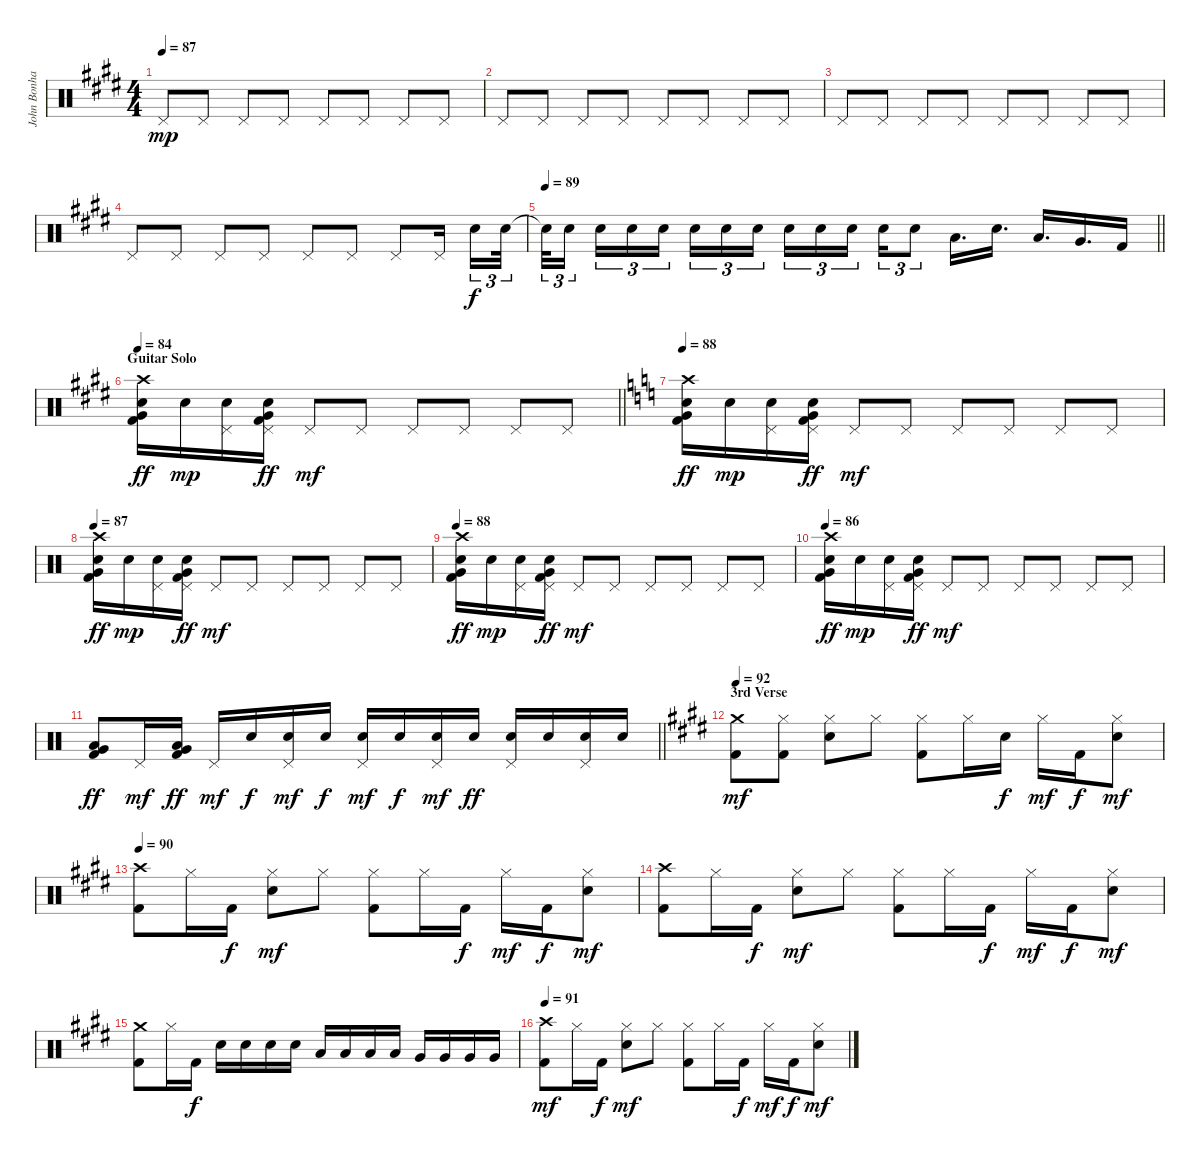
\track ("John Bonham Drums" "John Bonha") {instrument percussion}
\staff {score}
\articulation defaults
\ts (4 4)
\tempo 87
\clef neutral
\ks e "Pedal Hi-Hat (hit)".8{dy mp} "Pedal Hi-Hat (hit)".8 "Pedal Hi-Hat (hit)".8 "Pedal Hi-Hat (hit)".8 "Pedal Hi-Hat (hit)".8 "Pedal Hi-Hat (hit)".8 "Pedal Hi-Hat (hit)".8 "Pedal Hi-Hat (hit)".8
|
"Pedal Hi-Hat (hit)".8 "Pedal Hi-Hat (hit)".8 "Pedal Hi-Hat (hit)".8 "Pedal Hi-Hat (hit)".8 "Pedal Hi-Hat (hit)".8 "Pedal Hi-Hat (hit)".8 "Pedal Hi-Hat (hit)".8 "Pedal Hi-Hat (hit)".8 |
"Pedal Hi-Hat (hit)".8 "Pedal Hi-Hat (hit)".8 "Pedal Hi-Hat (hit)".8 "Pedal Hi-Hat (hit)".8 "Pedal Hi-Hat (hit)".8 "Pedal Hi-Hat (hit)".8 "Pedal Hi-Hat (hit)".8 "Pedal Hi-Hat (hit)".8 |
"Pedal Hi-Hat (hit)".8 "Pedal Hi-Hat (hit)".8 "Pedal Hi-Hat (hit)".8 "Pedal Hi-Hat (hit)".8 "Pedal Hi-Hat (hit)".8 "Pedal Hi-Hat (hit)".8 "Pedal Hi-Hat (hit)".8 "Pedal Hi-Hat (hit)".16{beam splitsecondary} "Snare (hit) 2".16{tu (3 2) dy f} "Snare (hit) 2".32{tu (3 2)} |
\tempo 89
\barLineRight lightlight "Snare (hit) 2"{t}.32{tu (3 2)} "Snare (hit) 2".16{tu (3 2) beam splitsecondary} "Snare (hit) 2".16{tu (3 2)} "Snare (hit) 2".16{tu (3 2)} "Snare (hit) 2".16{tu (3 2) beam splitsecondary} "Snare (hit) 2".16{tu (3 2)} "Snare (hit) 2".16{tu (3 2)} "Snare (hit) 2".16{tu (3 2) beam splitsecondary} "Snare (hit) 2".16{tu (3 2)} "Snare (hit) 2".16{tu (3 2)} "Snare (hit) 2".16{tu (3 2) beam splitsecondary} "Snare (hit) 2".16{tu (3 2)} "Snare (hit) 2".8{tu (3 2)} "Low Tom (hit)".16{d} "Snare (hit) 2".16{d} "Low Tom (hit)".16{d} "Very Low Tom (hit)".16{d} "Kick (hit) 2".16
|
\section ("" "Guitar Solo")
\tempo 84
\barLineRight lightlight
("Crash high (hit)" "Snare (hit) 2" "Very Low Tom (hit)" "Kick (hit) 2").16{dy ff} "Snare (hit) 2".16{dy mp} ("Pedal Hi-Hat (hit)" "Snare (hit) 2").16 ("Pedal Hi-Hat (hit)" "Snare (hit) 2" "Very Low Tom (hit)" "Kick (hit) 2").16{dy ff} "Pedal Hi-Hat (hit)".8{dy mf} "Pedal Hi-Hat (hit)".8 "Pedal Hi-Hat (hit)".8 "Pedal Hi-Hat (hit)".8 "Pedal Hi-Hat (hit)".8 "Pedal Hi-Hat (hit)".8 |
\tempo 88
\ks c
("Crash high (hit)" "Snare (hit) 2" "Very Low Tom (hit)" "Kick (hit) 2").16{dy ff} "Snare (hit) 2".16{dy mp} ("Pedal Hi-Hat (hit)" "Snare (hit) 2").16 ("Pedal Hi-Hat (hit)" "Snare (hit) 2" "Very Low Tom (hit)" "Kick (hit) 2").16{dy ff} "Pedal Hi-Hat (hit)".8{dy mf} "Pedal Hi-Hat (hit)".8 "Pedal Hi-Hat (hit)".8 "Pedal Hi-Hat (hit)".8 "Pedal Hi-Hat (hit)".8 "Pedal Hi-Hat (hit)".8 |
\tempo 87
("Crash high (hit)" "Snare (hit) 2" "Very Low Tom (hit)" "Kick (hit) 2").16{dy ff} "Snare (hit) 2".16{dy mp} ("Pedal Hi-Hat (hit)" "Snare (hit) 2").16 ("Pedal Hi-Hat (hit)" "Snare (hit) 2" "Very Low Tom (hit)" "Kick (hit) 2").16{dy ff} "Pedal Hi-Hat (hit)".8{dy mf} "Pedal Hi-Hat (hit)".8 "Pedal Hi-Hat (hit)".8 "Pedal Hi-Hat (hit)".8 "Pedal Hi-Hat (hit)".8 "Pedal Hi-Hat (hit)".8 |
\tempo 88
("Crash high (hit)" "Snare (hit) 2" "Very Low Tom (hit)" "Kick (hit) 2").16{dy ff} "Snare (hit) 2".16{dy mp} ("Pedal Hi-Hat (hit)" "Snare (hit) 2").16 ("Pedal Hi-Hat (hit)" "Snare (hit) 2" "Very Low Tom (hit)" "Kick (hit) 2").16{dy ff} "Pedal Hi-Hat (hit)".8{dy mf} "Pedal Hi-Hat (hit)".8 "Pedal Hi-Hat (hit)".8 "Pedal Hi-Hat (hit)".8 "Pedal Hi-Hat (hit)".8 "Pedal Hi-Hat (hit)".8 |
\tempo 86
("Crash high (hit)" "Snare (hit) 2" "Very Low Tom (hit)" "Kick (hit) 2").16{dy ff} "Snare (hit) 2".16{dy mp} ("Pedal Hi-Hat (hit)" "Snare (hit) 2").16 ("Pedal Hi-Hat (hit)" "Snare (hit) 2" "Very Low Tom (hit)" "Kick (hit) 2").16{dy ff} "Pedal Hi-Hat (hit)".8{dy mf} "Pedal Hi-Hat (hit)".8 "Pedal Hi-Hat (hit)".8 "Pedal Hi-Hat (hit)".8 "Pedal Hi-Hat (hit)".8 "Pedal Hi-Hat (hit)".8 |
\barLineRight lightlight
("Very Low Tom (hit)" "Low Tom (hit)" "Kick (hit) 2").8{dy ff} "Pedal Hi-Hat (hit)".16{dy mf} ("Very Low Tom (hit)" "Low Tom (hit)" "Kick (hit) 2").16{dy ff} "Pedal Hi-Hat (hit)".16{dy mf} "Snare (hit) 2".16{dy f} ("Pedal Hi-Hat (hit)" "Snare (hit) 2").16{dy mf} "Snare (hit) 2".16{dy f} ("Pedal Hi-Hat (hit)" "Snare (hit) 2").16{dy mf} "Snare (hit) 2".16{dy f} ("Pedal Hi-Hat (hit)" "Snare (hit) 2").16{dy mf} "Snare (hit) 2".16{dy ff} ("Pedal Hi-Hat (hit)" "Snare (hit) 2").16 "Snare (hit) 2".16 ("Pedal Hi-Hat (hit)" "Snare (hit) 2").16 "Snare (hit) 2".16 |
\section ("" "3rd Verse")
\tempo 92
\ks e
("Crash medium (hit)" "Kick (hit) 2").8{dy mf} ("Hi-Hat (closed)" "Kick (hit) 2").8 ("Hi-Hat (closed)" "Snare (hit) 2").8 "Hi-Hat (closed)".8 ("Hi-Hat (closed)" "Kick (hit) 2").8 "Hi-Hat (closed)".16 "Snare (hit) 2".16{dy f} "Hi-Hat (closed)".16{dy mf} "Kick (hit) 2".16{dy f} ("Hi-Hat (closed)" "Snare (hit) 2").8{dy mf} |
\tempo 90
("Crash high (hit)" "Kick (hit) 2").8 "Hi-Hat (closed)".16 "Kick (hit) 2".16{dy f} ("Hi-Hat (closed)" "Snare (hit) 2").8{dy mf} "Hi-Hat (closed)".8 ("Hi-Hat (closed)" "Kick (hit) 2").8 "Hi-Hat (closed)".16 "Kick (hit) 2".16{dy f} "Hi-Hat (closed)".16{dy mf} "Kick (hit) 2".16{dy f} ("Hi-Hat (closed)" "Snare (hit) 2").8{dy mf} |
("Crash high (hit)" "Kick (hit) 2").8 "Hi-Hat (closed)".16 "Kick (hit) 2".16{dy f} ("Hi-Hat (closed)" "Snare (hit) 2").8{dy mf} "Hi-Hat (closed)".8 ("Hi-Hat (closed)" "Kick (hit) 2").8 "Hi-Hat (closed)".16 "Kick (hit) 2".16{dy f} "Hi-Hat (closed)".16{dy mf} "Kick (hit) 2".16{dy f} ("Hi-Hat (closed)" "Snare (hit) 2").8{dy mf} |
("Crash medium (hit)" "Kick (hit) 2").8 "Hi-Hat (closed)".16 "Kick (hit) 2".16{dy f} "Snare (hit) 2".16 "Snare (hit) 2".16 "Snare (hit) 2".16 "Snare (hit) 2".16 "Low Tom (hit)".16 "Low Tom (hit)".16 "Low Tom (hit)".16 "Low Tom (hit)".16 "Very Low Tom (hit)".16 "Very Low Tom (hit)".16 "Very Low Tom (hit)".16 "Very Low Tom (hit)".16 |
\tempo 91
("Crash high (hit)" "Kick (hit) 2").8{dy mf} "Hi-Hat (closed)".16 "Kick (hit) 2".16{dy f} ("Hi-Hat (closed)" "Snare (hit) 2").8{dy mf} "Hi-Hat (closed)".8 ("Hi-Hat (closed)" "Kick (hit) 2").8 "Hi-Hat (closed)".16 "Kick (hit) 2".16{dy f} "Hi-Hat (closed)".16{dy mf} "Kick (hit) 2".16{dy f} ("Hi-Hat (closed)" "Snare (hit) 2").8{dy mf}
